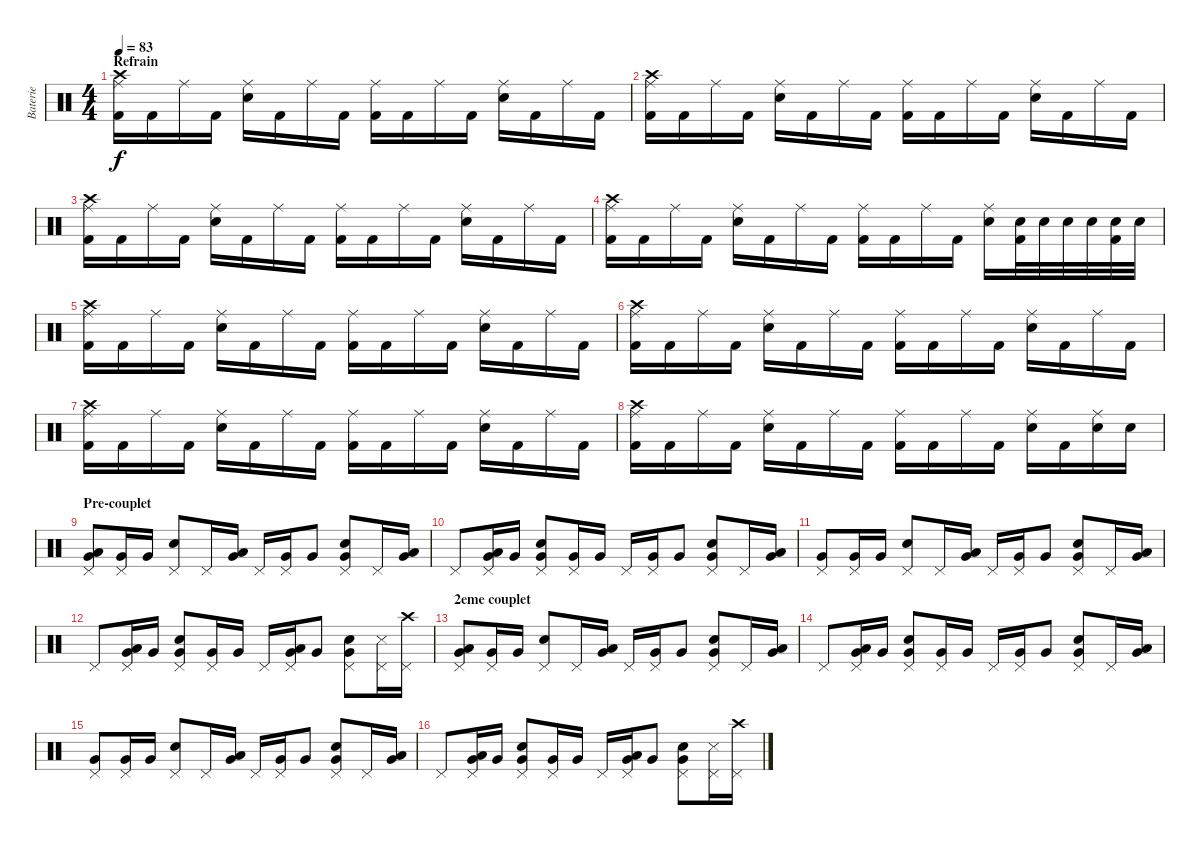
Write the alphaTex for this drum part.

\track ("Baterie" "Baterie") {instrument percussion}
\staff {score}
\articulation defaults
\ts (4 4)
\section ("" "Refrain")
\tempo 83
\clef neutral
\ks c
("Crash high (hit)" "Kick (hit) 2" "Ride (middle)").16{dy f} "Kick (hit) 2".16 "Ride (middle)".16 "Kick (hit) 2".16 ("Snare (hit) 2" "Ride (middle)").16 "Kick (hit) 2".16 "Ride (middle)".16 "Kick (hit) 2".16 ("Kick (hit) 2" "Ride (middle)").16 "Kick (hit) 2".16 "Ride (middle)".16 "Kick (hit) 2".16 ("Snare (hit) 2" "Ride (middle)").16 "Kick (hit) 2".16 "Ride (middle)".16 "Kick (hit) 2".16 |
("Crash high (hit)" "Kick (hit) 2" "Ride (middle)").16 "Kick (hit) 2".16 "Ride (middle)".16 "Kick (hit) 2".16 ("Snare (hit) 2" "Ride (middle)").16 "Kick (hit) 2".16 "Ride (middle)".16 "Kick (hit) 2".16 ("Kick (hit) 2" "Ride (middle)").16 "Kick (hit) 2".16 "Ride (middle)".16 "Kick (hit) 2".16 ("Snare (hit) 2" "Ride (middle)").16 "Kick (hit) 2".16 "Ride (middle)".16 "Kick (hit) 2".16 |
("Crash high (hit)" "Kick (hit) 2" "Ride (middle)").16 "Kick (hit) 2".16 "Ride (middle)".16 "Kick (hit) 2".16 ("Snare (hit) 2" "Ride (middle)").16 "Kick (hit) 2".16 "Ride (middle)".16 "Kick (hit) 2".16 ("Kick (hit) 2" "Ride (middle)").16 "Kick (hit) 2".16 "Ride (middle)".16 "Kick (hit) 2".16 ("Snare (hit) 2" "Ride (middle)").16 "Kick (hit) 2".16 "Ride (middle)".16 "Kick (hit) 2".16 |
("Crash high (hit)" "Kick (hit) 2" "Ride (middle)").16 "Kick (hit) 2".16 "Ride (middle)".16 "Kick (hit) 2".16 ("Snare (hit) 2" "Ride (middle)").16 "Kick (hit) 2".16 "Ride (middle)".16 "Kick (hit) 2".16 ("Kick (hit) 2" "Ride (middle)").16 "Kick (hit) 2".16 "Ride (middle)".16 "Kick (hit) 2".16 ("Snare (hit) 2" "Ride (middle)").16 ("Snare (hit) 2" "Kick (hit) 2").32 "Snare (hit) 2".32 "Snare (hit) 2".32 "Snare (hit) 2".32 ("Snare (hit) 2" "Kick (hit) 2").32 "Snare (hit) 2".32 |
("Crash high (hit)" "Kick (hit) 2" "Ride (middle)").16 "Kick (hit) 2".16 "Ride (middle)".16 "Kick (hit) 2".16 ("Snare (hit) 2" "Ride (middle)").16 "Kick (hit) 2".16 "Ride (middle)".16 "Kick (hit) 2".16 ("Kick (hit) 2" "Ride (middle)").16 "Kick (hit) 2".16 "Ride (middle)".16 "Kick (hit) 2".16 ("Snare (hit) 2" "Ride (middle)").16 "Kick (hit) 2".16 "Ride (middle)".16 "Kick (hit) 2".16 |
("Crash high (hit)" "Kick (hit) 2" "Ride (middle)").16 "Kick (hit) 2".16 "Ride (middle)".16 "Kick (hit) 2".16 ("Snare (hit) 2" "Ride (middle)").16 "Kick (hit) 2".16 "Ride (middle)".16 "Kick (hit) 2".16 ("Kick (hit) 2" "Ride (middle)").16 "Kick (hit) 2".16 "Ride (middle)".16 "Kick (hit) 2".16 ("Snare (hit) 2" "Ride (middle)").16 "Kick (hit) 2".16 "Ride (middle)".16 "Kick (hit) 2".16 |
("Crash high (hit)" "Kick (hit) 2" "Ride (middle)").16 "Kick (hit) 2".16 "Ride (middle)".16 "Kick (hit) 2".16 ("Snare (hit) 2" "Ride (middle)").16 "Kick (hit) 2".16 "Ride (middle)".16 "Kick (hit) 2".16 ("Kick (hit) 2" "Ride (middle)").16 "Kick (hit) 2".16 "Ride (middle)".16 "Kick (hit) 2".16 ("Snare (hit) 2" "Ride (middle)").16 "Kick (hit) 2".16 "Ride (middle)".16 "Kick (hit) 2".16 |
("Crash high (hit)" "Kick (hit) 2" "Ride (middle)").16 "Kick (hit) 2".16 "Ride (middle)".16 "Kick (hit) 2".16 ("Snare (hit) 2" "Ride (middle)").16 "Kick (hit) 2".16 "Ride (middle)".16 "Kick (hit) 2".16 ("Kick (hit) 2" "Ride (middle)").16 "Kick (hit) 2".16 "Ride (middle)".16 "Kick (hit) 2".16 ("Snare (hit) 2" "Ride (middle)").16 "Kick (hit) 2".16 ("Snare (hit) 2" "Ride (middle)").16 "Snare (hit) 2".16 |
\section ("" "Pre-couplet")
("Low Floor Tom (hit)" "Very Low Tom (hit)" "Pedal Hi-Hat (hit)").8 ("Very Low Tom (hit)" "Pedal Hi-Hat (hit)").16 "Very Low Tom (hit)".16 ("Snare (hit) 2" "Pedal Hi-Hat (hit)").8 "Pedal Hi-Hat (hit)".16 ("Low Floor Tom (hit)" "Very Low Tom (hit)").16 "Pedal Hi-Hat (hit)".16 ("Very Low Tom (hit)" "Pedal Hi-Hat (hit)").16 "Very Low Tom (hit)".8 ("Snare (hit) 2" "Very Low Tom (hit)" "Pedal Hi-Hat (hit)").8 "Pedal Hi-Hat (hit)".16 ("Low Floor Tom (hit)" "Very Low Tom (hit)").16 |
"Pedal Hi-Hat (hit)".8 ("Low Floor Tom (hit)" "Very Low Tom (hit)" "Pedal Hi-Hat (hit)").16 "Very Low Tom (hit)".16 ("Snare (hit) 2" "Very Low Tom (hit)" "Pedal Hi-Hat (hit)").8 ("Very Low Tom (hit)" "Pedal Hi-Hat (hit)").16 "Very Low Tom (hit)".16 "Pedal Hi-Hat (hit)".16 ("Very Low Tom (hit)" "Pedal Hi-Hat (hit)").16 "Very Low Tom (hit)".8 ("Snare (hit) 2" "Very Low Tom (hit)" "Pedal Hi-Hat (hit)").8 "Pedal Hi-Hat (hit)".16 ("Low Floor Tom (hit)" "Very Low Tom (hit)").16 |
("Very Low Tom (hit)" "Pedal Hi-Hat (hit)").8 ("Very Low Tom (hit)" "Pedal Hi-Hat (hit)").16 "Very Low Tom (hit)".16 ("Snare (hit) 2" "Pedal Hi-Hat (hit)").8 "Pedal Hi-Hat (hit)".16 ("Low Floor Tom (hit)" "Very Low Tom (hit)").16 "Pedal Hi-Hat (hit)".16 ("Very Low Tom (hit)" "Pedal Hi-Hat (hit)").16 "Very Low Tom (hit)".8 ("Snare (hit) 2" "Very Low Tom (hit)" "Pedal Hi-Hat (hit)").8 "Pedal Hi-Hat (hit)".16 ("Low Floor Tom (hit)" "Very Low Tom (hit)").16 |
"Pedal Hi-Hat (hit)".8 ("Low Floor Tom (hit)" "Very Low Tom (hit)" "Pedal Hi-Hat (hit)").16 "Very Low Tom (hit)".16 ("Snare (hit) 2" "Very Low Tom (hit)" "Pedal Hi-Hat (hit)").8 ("Very Low Tom (hit)" "Pedal Hi-Hat (hit)").16 "Very Low Tom (hit)".16 "Pedal Hi-Hat (hit)".16 ("Low Floor Tom (hit)" "Very Low Tom (hit)" "Pedal Hi-Hat (hit)").16 "Very Low Tom (hit)".8 ("Snare (hit) 2" "Very Low Tom (hit)" "Pedal Hi-Hat (hit)").8 ("Snare (side stick) 3" "Pedal Hi-Hat (hit)").16 ("Crash high (hit)" "Pedal Hi-Hat (hit)").16 |
\section ("" "2eme couplet")
("Low Floor Tom (hit)" "Very Low Tom (hit)" "Pedal Hi-Hat (hit)").8 ("Very Low Tom (hit)" "Pedal Hi-Hat (hit)").16 "Very Low Tom (hit)".16 ("Snare (hit) 2" "Pedal Hi-Hat (hit)").8 "Pedal Hi-Hat (hit)".16 ("Low Floor Tom (hit)" "Very Low Tom (hit)").16 "Pedal Hi-Hat (hit)".16 ("Very Low Tom (hit)" "Pedal Hi-Hat (hit)").16 "Very Low Tom (hit)".8 ("Snare (hit) 2" "Very Low Tom (hit)" "Pedal Hi-Hat (hit)").8 "Pedal Hi-Hat (hit)".16 ("Low Floor Tom (hit)" "Very Low Tom (hit)").16 |
"Pedal Hi-Hat (hit)".8 ("Low Floor Tom (hit)" "Very Low Tom (hit)" "Pedal Hi-Hat (hit)").16 "Very Low Tom (hit)".16 ("Snare (hit) 2" "Very Low Tom (hit)" "Pedal Hi-Hat (hit)").8 ("Very Low Tom (hit)" "Pedal Hi-Hat (hit)").16 "Very Low Tom (hit)".16 "Pedal Hi-Hat (hit)".16 ("Very Low Tom (hit)" "Pedal Hi-Hat (hit)").16 "Very Low Tom (hit)".8 ("Snare (hit) 2" "Very Low Tom (hit)" "Pedal Hi-Hat (hit)").8 "Pedal Hi-Hat (hit)".16 ("Low Floor Tom (hit)" "Very Low Tom (hit)").16 |
("Very Low Tom (hit)" "Pedal Hi-Hat (hit)").8 ("Very Low Tom (hit)" "Pedal Hi-Hat (hit)").16 "Very Low Tom (hit)".16 ("Snare (hit) 2" "Pedal Hi-Hat (hit)").8 "Pedal Hi-Hat (hit)".16 ("Low Floor Tom (hit)" "Very Low Tom (hit)").16 "Pedal Hi-Hat (hit)".16 ("Very Low Tom (hit)" "Pedal Hi-Hat (hit)").16 "Very Low Tom (hit)".8 ("Snare (hit) 2" "Very Low Tom (hit)" "Pedal Hi-Hat (hit)").8 "Pedal Hi-Hat (hit)".16 ("Low Floor Tom (hit)" "Very Low Tom (hit)").16 |
"Pedal Hi-Hat (hit)".8 ("Low Floor Tom (hit)" "Very Low Tom (hit)" "Pedal Hi-Hat (hit)").16 "Very Low Tom (hit)".16 ("Snare (hit) 2" "Very Low Tom (hit)" "Pedal Hi-Hat (hit)").8 ("Very Low Tom (hit)" "Pedal Hi-Hat (hit)").16 "Very Low Tom (hit)".16 "Pedal Hi-Hat (hit)".16 ("Low Floor Tom (hit)" "Very Low Tom (hit)" "Pedal Hi-Hat (hit)").16 "Very Low Tom (hit)".8 ("Snare (hit) 2" "Very Low Tom (hit)" "Pedal Hi-Hat (hit)").8 ("Snare (side stick) 3" "Pedal Hi-Hat (hit)").16 ("Crash high (hit)" "Pedal Hi-Hat (hit)").16
